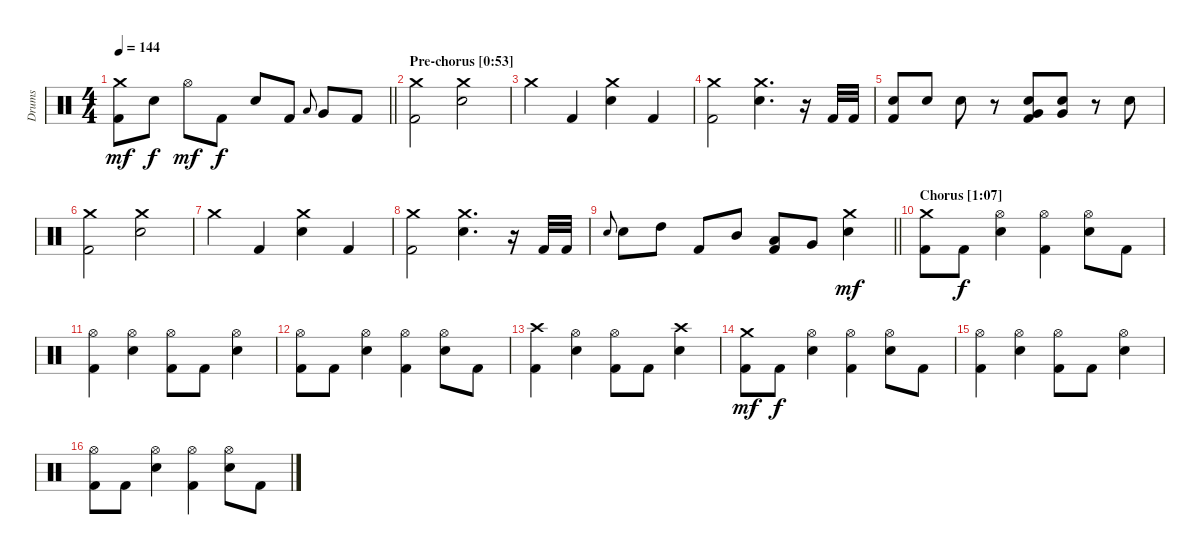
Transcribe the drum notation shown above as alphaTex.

\track ("Drums" "Drums") {instrument percussion}
\staff {score}
\articulation defaults
\ts (4 4)
\tempo 144
\clef neutral
\barLineRight lightlight
\ks c
("Crash medium (hit)" "Kick (hit) 2").8{dy mf} "Snare (hit) 2".8{dy f} "Hi-Hat (open)".8{dy mf} "Kick (hit) 2".8{dy f} "Snare (hit) 2".8 "Kick (hit) 2".8 "Low Tom (hit)".8{gr onbeat} "Very Low Tom (hit)".8 "Kick (hit) 2".8 |
\section ("" "Pre-chorus [0:53]")
("Crash medium (hit)" "Kick (hit) 2").2 ("Crash medium (hit)" "Snare (hit) 2").2 |
"Crash medium (hit)".4 "Kick (hit) 2".4 ("Crash medium (hit)" "Snare (hit) 2").4 "Kick (hit) 2".4 |
("Crash medium (hit)" "Kick (hit) 2").2 ("Crash medium (hit)" "Snare (hit) 2").4{d} r.16 "Kick (hit) 2".32 "Kick (hit) 2".32 |
("Snare (hit) 2" "Kick (hit) 2").8 "Snare (hit) 2".8 "Snare (hit) 2".8 r.8 ("Very Low Tom (hit)" "Snare (hit) 2" "Kick (hit) 2").8 ("Very Low Tom (hit)" "Snare (hit) 2").8 r.8 "Snare (hit) 2".8 |
("Crash medium (hit)" "Kick (hit) 2").2 ("Crash medium (hit)" "Snare (hit) 2").2 |
"Crash medium (hit)".4 "Kick (hit) 2".4 ("Crash medium (hit)" "Snare (hit) 2").4 "Kick (hit) 2".4 |
("Crash medium (hit)" "Kick (hit) 2").2 ("Crash medium (hit)" "Snare (hit) 2").4{d} r.16 "Kick (hit) 2".32 "Kick (hit) 2".32 |
\barLineRight lightlight "Snare (hit) 2".8{gr onbeat} "Snare (hit) 2".8 "High Tom (hit)".8 "Kick (hit) 2".8 "Mid Tom (hit)".8
("Low Tom (hit)" "Kick (hit) 2").8 "Very Low Tom (hit)".8 ("Crash medium (hit)" "Snare (hit) 2").4{dy mf} |
\section ("" "Chorus [1:07]")
("Crash medium (hit)" "Kick (hit) 2").8 "Kick (hit) 2".8{dy f} ("Hi-Hat (open)" "Snare (hit) 2").4 ("Hi-Hat (open)" "Kick (hit) 2").4 ("Hi-Hat (open)" "Snare (hit) 2").8 "Kick (hit) 2".8 |
("Hi-Hat (open)" "Kick (hit) 2").4 ("Hi-Hat (open)" "Snare (hit) 2").4 ("Hi-Hat (open)" "Kick (hit) 2").8 "Kick (hit) 2".8 ("Hi-Hat (open)" "Snare (hit) 2").4 |
("Hi-Hat (open)" "Kick (hit) 2").8 "Kick (hit) 2".8 ("Hi-Hat (open)" "Snare (hit) 2").4 ("Hi-Hat (open)" "Kick (hit) 2").4 ("Hi-Hat (open)" "Snare (hit) 2").8 "Kick (hit) 2".8 |
("Crash high (hit)" "Kick (hit) 2").4 ("Hi-Hat (open)" "Snare (hit) 2").4 ("Hi-Hat (open)" "Kick (hit) 2").8 "Kick (hit) 2".8 ("Crash high (hit)" "Snare (hit) 2").4 |
("Crash medium (hit)" "Kick (hit) 2").8{dy mf} "Kick (hit) 2".8{dy f} ("Hi-Hat (open)" "Snare (hit) 2").4 ("Hi-Hat (open)" "Kick (hit) 2").4 ("Hi-Hat (open)" "Snare (hit) 2").8 "Kick (hit) 2".8 |
("Hi-Hat (open)" "Kick (hit) 2").4 ("Hi-Hat (open)" "Snare (hit) 2").4 ("Hi-Hat (open)" "Kick (hit) 2").8 "Kick (hit) 2".8 ("Hi-Hat (open)" "Snare (hit) 2").4 |
("Hi-Hat (open)" "Kick (hit) 2").8 "Kick (hit) 2".8 ("Hi-Hat (open)" "Snare (hit) 2").4 ("Hi-Hat (open)" "Kick (hit) 2").4 ("Hi-Hat (open)" "Snare (hit) 2").8 "Kick (hit) 2".8
